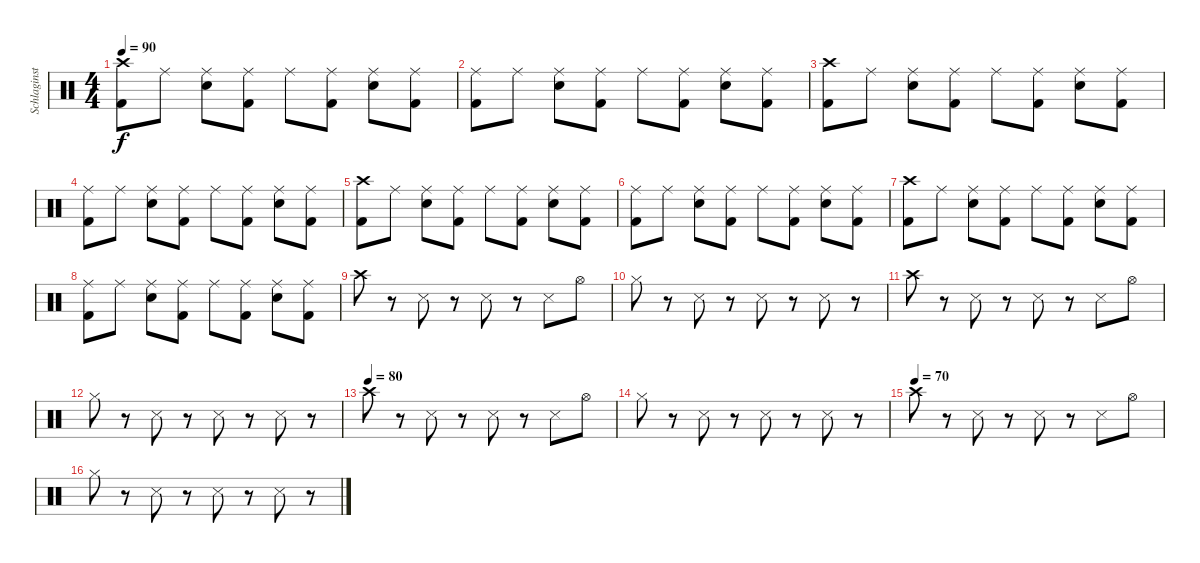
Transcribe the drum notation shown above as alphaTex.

\track ("Schlaginstrumente - Auswahl" "Schlaginst") {instrument percussion}
\staff {score}
\articulation defaults
\ts (4 4)
\tempo 90
\clef neutral
\ks c
("Crash high (hit)" "Kick (hit) 2").8{dy f} "Ride (middle)".8 ("Ride (middle)" "Snare (hit) 2").8 ("Ride (middle)" "Kick (hit) 2").8 "Ride (middle)".8 ("Ride (middle)" "Kick (hit) 2").8 ("Ride (middle)" "Snare (hit) 2").8 ("Ride (middle)" "Kick (hit) 2").8 |
("Ride (middle)" "Kick (hit) 2").8 "Ride (middle)".8 ("Ride (middle)" "Snare (hit) 2").8 ("Ride (middle)" "Kick (hit) 2").8 "Ride (middle)".8 ("Ride (middle)" "Kick (hit) 2").8 ("Ride (middle)" "Snare (hit) 2").8 ("Ride (middle)" "Kick (hit) 2").8 |
("Crash high (hit)" "Kick (hit) 2").8 "Ride (middle)".8 ("Ride (middle)" "Snare (hit) 2").8 ("Ride (middle)" "Kick (hit) 2").8 "Ride (middle)".8 ("Ride (middle)" "Kick (hit) 2").8 ("Ride (middle)" "Snare (hit) 2").8 ("Ride (middle)" "Kick (hit) 2").8 |
("Ride (middle)" "Kick (hit) 2").8 "Ride (middle)".8 ("Ride (middle)" "Snare (hit) 2").8 ("Ride (middle)" "Kick (hit) 2").8 "Ride (middle)".8 ("Ride (middle)" "Kick (hit) 2").8 ("Ride (middle)" "Snare (hit) 2").8 ("Ride (middle)" "Kick (hit) 2").8 |
("Crash high (hit)" "Kick (hit) 2").8 "Ride (middle)".8 ("Ride (middle)" "Snare (hit) 2").8 ("Ride (middle)" "Kick (hit) 2").8 "Ride (middle)".8 ("Ride (middle)" "Kick (hit) 2").8 ("Ride (middle)" "Snare (hit) 2").8 ("Ride (middle)" "Kick (hit) 2").8 |
("Ride (middle)" "Kick (hit) 2").8 "Ride (middle)".8 ("Ride (middle)" "Snare (hit) 2").8 ("Ride (middle)" "Kick (hit) 2").8 "Ride (middle)".8 ("Ride (middle)" "Kick (hit) 2").8 ("Ride (middle)" "Snare (hit) 2").8 ("Ride (middle)" "Kick (hit) 2").8 |
("Crash high (hit)" "Kick (hit) 2").8 "Ride (middle)".8 ("Ride (middle)" "Snare (hit) 2").8 ("Ride (middle)" "Kick (hit) 2").8 "Ride (middle)".8 ("Ride (middle)" "Kick (hit) 2").8 ("Ride (middle)" "Snare (hit) 2").8 ("Ride (middle)" "Kick (hit) 2").8 |
("Ride (middle)" "Kick (hit) 2").8 "Ride (middle)".8 ("Ride (middle)" "Snare (hit) 2").8 ("Ride (middle)" "Kick (hit) 2").8 "Ride (middle)".8 ("Ride (middle)" "Kick (hit) 2").8 ("Ride (middle)" "Snare (hit) 2").8 ("Ride (middle)" "Kick (hit) 2").8 |
"Crash high (hit)".8 r.8 "Metronome (hit)".8 r.8 "Metronome (hit)".8 r.8 "Metronome (hit)".8 "Hi-Hat (open)".8 |
"Hi-Hat (closed)".8 r.8 "Metronome (hit)".8 r.8 "Metronome (hit)".8 r.8 "Metronome (hit)".8 r.8 |
"Crash high (hit)".8 r.8 "Metronome (hit)".8 r.8 "Metronome (hit)".8 r.8 "Metronome (hit)".8 "Hi-Hat (open)".8 |
"Hi-Hat (closed)".8 r.8 "Metronome (hit)".8 r.8 "Metronome (hit)".8 r.8 "Metronome (hit)".8 r.8 |
\tempo (80)
"Crash high (hit)".8 r.8 "Metronome (hit)".8 r.8 "Metronome (hit)".8 r.8 "Metronome (hit)".8 "Hi-Hat (open)".8 |
"Hi-Hat (closed)".8 r.8 "Metronome (hit)".8 r.8 "Metronome (hit)".8 r.8 "Metronome (hit)".8 r.8 |
\tempo (70)
"Crash high (hit)".8 r.8 "Metronome (hit)".8 r.8 "Metronome (hit)".8 r.8 "Metronome (hit)".8 "Hi-Hat (open)".8 |
"Hi-Hat (closed)".8 r.8 "Metronome (hit)".8 r.8 "Metronome (hit)".8 r.8 "Metronome (hit)".8 r.8
